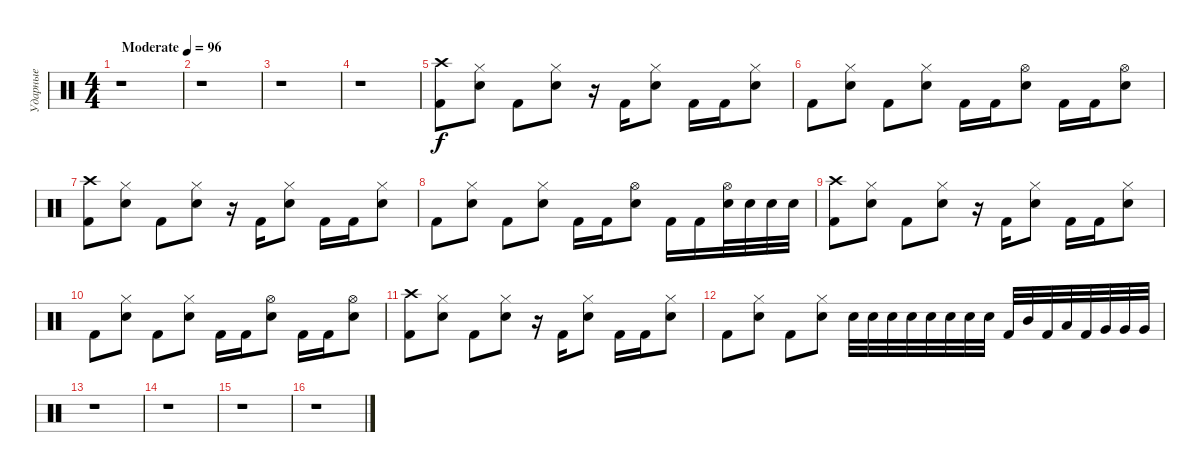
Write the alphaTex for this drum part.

\track ("Ударные" "Ударные") {instrument percussion}
\staff {score}
\articulation defaults
\ts (4 4)
\tempo (96 "Moderate")
\clef neutral
\ks c
r.1{dy f} |
r.1 |
r.1 |
r.1 |
("Crash high (hit)" "Kick (hit) 2").8 ("Hi-Hat (closed)" "Electric Snare (hit)").8 "Kick (hit) 2".8 ("Hi-Hat (closed)" "Electric Snare (hit)").8 r.16 "Kick (hit) 2".16 ("Hi-Hat (closed)" "Electric Snare (hit)").8 "Kick (hit) 2".16 "Kick (hit) 2".16 ("Hi-Hat (closed)" "Electric Snare (hit)").8 |
"Kick (hit) 2".8 ("Hi-Hat (closed)" "Electric Snare (hit)").8 "Kick (hit) 2".8 ("Hi-Hat (closed)" "Electric Snare (hit)").8 "Kick (hit) 2".16 "Kick (hit) 2".16 ("Hi-Hat (open)" "Electric Snare (hit)").8 "Kick (hit) 2".16 "Kick (hit) 2".16 ("Hi-Hat (open)" "Electric Snare (hit)").8 |
("Crash high (hit)" "Kick (hit) 2").8 ("Hi-Hat (closed)" "Electric Snare (hit)").8 "Kick (hit) 2".8 ("Hi-Hat (closed)" "Electric Snare (hit)").8 r.16 "Kick (hit) 2".16 ("Hi-Hat (closed)" "Electric Snare (hit)").8 "Kick (hit) 2".16 "Kick (hit) 2".16 ("Hi-Hat (closed)" "Electric Snare (hit)").8 |
"Kick (hit) 2".8 ("Hi-Hat (closed)" "Electric Snare (hit)").8 "Kick (hit) 2".8 ("Hi-Hat (closed)" "Electric Snare (hit)").8 "Kick (hit) 2".16 "Kick (hit) 2".16 ("Hi-Hat (open)" "Electric Snare (hit)").8 "Kick (hit) 2".16 "Kick (hit) 2".16 ("Hi-Hat (open)" "Electric Snare (hit)").32 "Electric Snare (hit)".32 "Electric Snare (hit)".32 "Electric Snare (hit)".32 |
("Crash high (hit)" "Kick (hit) 2").8 ("Hi-Hat (closed)" "Electric Snare (hit)").8 "Kick (hit) 2".8 ("Hi-Hat (closed)" "Electric Snare (hit)").8 r.16 "Kick (hit) 2".16 ("Hi-Hat (closed)" "Electric Snare (hit)").8 "Kick (hit) 2".16 "Kick (hit) 2".16 ("Hi-Hat (closed)" "Electric Snare (hit)").8 |
"Kick (hit) 2".8 ("Hi-Hat (closed)" "Electric Snare (hit)").8 "Kick (hit) 2".8 ("Hi-Hat (closed)" "Electric Snare (hit)").8 "Kick (hit) 2".16 "Kick (hit) 2".16 ("Hi-Hat (open)" "Electric Snare (hit)").8 "Kick (hit) 2".16 "Kick (hit) 2".16 ("Hi-Hat (open)" "Electric Snare (hit)").8 |
("Crash high (hit)" "Kick (hit) 2").8 ("Hi-Hat (closed)" "Electric Snare (hit)").8 "Kick (hit) 2".8 ("Hi-Hat (closed)" "Electric Snare (hit)").8 r.16 "Kick (hit) 2".16 ("Hi-Hat (closed)" "Electric Snare (hit)").8 "Kick (hit) 2".16 "Kick (hit) 2".16 ("Hi-Hat (closed)" "Electric Snare (hit)").8 |
"Kick (hit) 2".8 ("Hi-Hat (closed)" "Electric Snare (hit)").8 "Kick (hit) 2".8 ("Hi-Hat (closed)" "Electric Snare (hit)").8 "Electric Snare (hit)".32 "Electric Snare (hit)".32 "Electric Snare (hit)".32 "Electric Snare (hit)".32 "Electric Snare (hit)".32 "Electric Snare (hit)".32 "Electric Snare (hit)".32 "Electric Snare (hit)".32 "Kick (hit) 2".32 "Mid Tom (hit)".32 "Kick (hit) 2".32 "Low Tom (hit)".32 "Kick (hit) 2".32 "Very Low Tom (hit)".32 "Very Low Tom (hit)".32 "Very Low Tom (hit)".32 |
r.1 |
r.1 |
r.1 |
r.1
